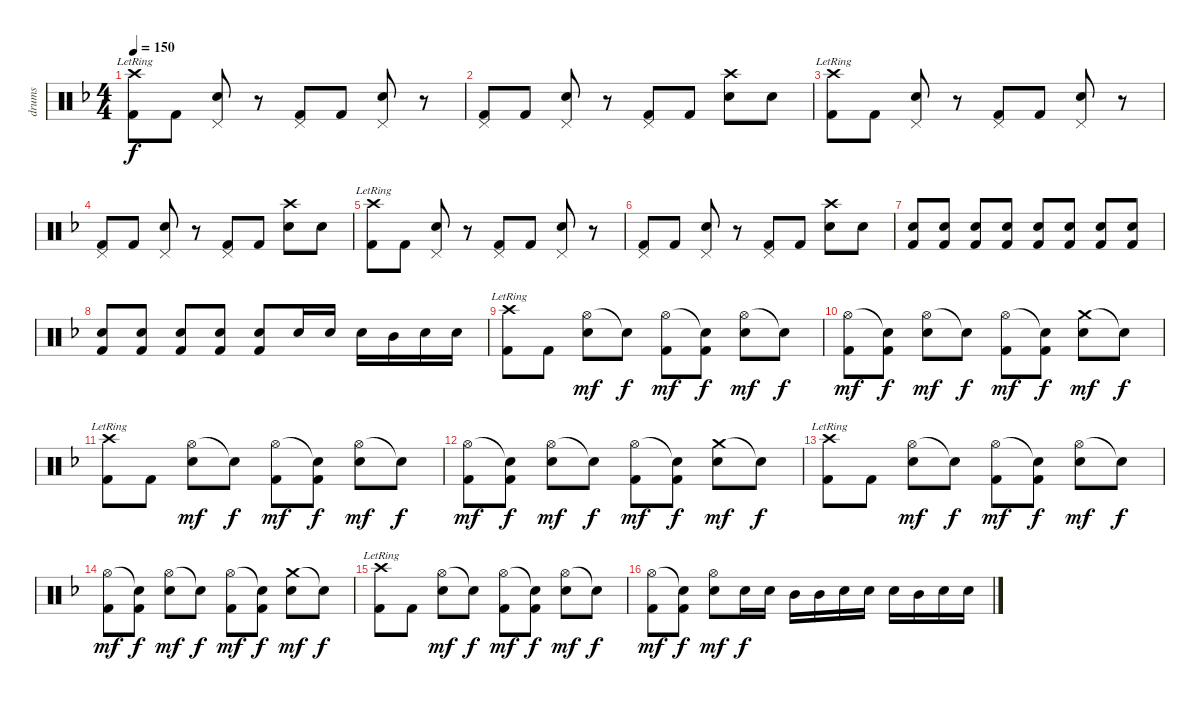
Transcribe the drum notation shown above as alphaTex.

\track ("drums" "drums") {instrument percussion}
\staff {score}
\articulation defaults
\ts (4 4)
\tempo 150
\clef neutral
\ks dminor
("Crash high (hit)"{lr} "Kick (hit) 2").8{dy f} "Kick (hit) 2".8 ("Pedal Hi-Hat (hit)" "Electric Snare (hit)").8 r.8 ("Pedal Hi-Hat (hit)" "Kick (hit) 2").8 "Kick (hit) 2".8 ("Pedal Hi-Hat (hit)" "Electric Snare (hit)").8 r.8 |
("Pedal Hi-Hat (hit)" "Kick (hit) 2").8 "Kick (hit) 2".8 ("Pedal Hi-Hat (hit)" "Electric Snare (hit)").8 r.8 ("Pedal Hi-Hat (hit)" "Kick (hit) 2").8 "Kick (hit) 2".8 ("Crash high (hit)" "Electric Snare (hit)").8 "Electric Snare (hit)".8 |
("Crash high (hit)"{lr} "Kick (hit) 2").8 "Kick (hit) 2".8 ("Pedal Hi-Hat (hit)" "Electric Snare (hit)").8 r.8 ("Pedal Hi-Hat (hit)" "Kick (hit) 2").8 "Kick (hit) 2".8 ("Pedal Hi-Hat (hit)" "Electric Snare (hit)").8 r.8 |
("Pedal Hi-Hat (hit)" "Kick (hit) 2").8 "Kick (hit) 2".8 ("Pedal Hi-Hat (hit)" "Electric Snare (hit)").8 r.8 ("Pedal Hi-Hat (hit)" "Kick (hit) 2").8 "Kick (hit) 2".8 ("Crash high (hit)" "Electric Snare (hit)").8 "Electric Snare (hit)".8 |
("Crash high (hit)"{lr} "Kick (hit) 2").8 "Kick (hit) 2".8 ("Pedal Hi-Hat (hit)" "Electric Snare (hit)").8 r.8 ("Pedal Hi-Hat (hit)" "Kick (hit) 2").8 "Kick (hit) 2".8 ("Pedal Hi-Hat (hit)" "Electric Snare (hit)").8 r.8 |
("Pedal Hi-Hat (hit)" "Kick (hit) 2").8 "Kick (hit) 2".8 ("Pedal Hi-Hat (hit)" "Electric Snare (hit)").8 r.8 ("Pedal Hi-Hat (hit)" "Kick (hit) 2").8 "Kick (hit) 2".8 ("Crash high (hit)" "Electric Snare (hit)").8 "Electric Snare (hit)".8 |
("Electric Snare (hit)" "Kick (hit) 2").8 ("Electric Snare (hit)" "Kick (hit) 2").8 ("Electric Snare (hit)" "Kick (hit) 2").8 ("Electric Snare (hit)" "Kick (hit) 2").8 ("Electric Snare (hit)" "Kick (hit) 2").8 ("Electric Snare (hit)" "Kick (hit) 2").8 ("Electric Snare (hit)" "Kick (hit) 2").8 ("Electric Snare (hit)" "Kick (hit) 2").8 |
("Electric Snare (hit)" "Kick (hit) 2").8 ("Electric Snare (hit)" "Kick (hit) 2").8 ("Electric Snare (hit)" "Kick (hit) 2").8 ("Electric Snare (hit)" "Kick (hit) 2").8 ("Electric Snare (hit)" "Kick (hit) 2").8 "Electric Snare (hit)".16 "Electric Snare (hit)".16 "Electric Snare (hit)".16 "Mid Tom (hit)".16 "Electric Snare (hit)".16 "Electric Snare (hit)".16 |
("Crash high (hit)"{lr} "Kick (hit) 2").8 "Kick (hit) 2".8 ("Hi-Hat (open)" "Electric Snare (hit)").8{dy mf} "Snare (hit)"{t}.8{dy f} ("Hi-Hat (open)" "Kick (hit) 2").8{dy mf} ("Snare (hit)"{t} "Kick (hit) 2").8{dy f} ("Hi-Hat (open)" "Electric Snare (hit)").8{dy mf} "Snare (hit)"{t}.8{dy f} |
("Hi-Hat (open)" "Kick (hit) 2").8{dy mf} ("Snare (hit)"{t} "Kick (hit) 2").8{dy f} ("Hi-Hat (open)" "Electric Snare (hit)").8{dy mf} "Snare (hit)"{t}.8{dy f} ("Hi-Hat (open)" "Kick (hit) 2").8{dy mf} ("Snare (hit)"{t} "Kick (hit) 2").8{dy f} ("Crash medium (hit)" "Electric Snare (hit)").8{dy mf} "Snare (hit)"{t}.8{dy f} |
("Crash high (hit)"{lr} "Kick (hit) 2").8 "Kick (hit) 2".8 ("Hi-Hat (open)" "Electric Snare (hit)").8{dy mf} "Snare (hit)"{t}.8{dy f} ("Hi-Hat (open)" "Kick (hit) 2").8{dy mf} ("Snare (hit)"{t} "Kick (hit) 2").8{dy f} ("Hi-Hat (open)" "Electric Snare (hit)").8{dy mf} "Snare (hit)"{t}.8{dy f} |
("Hi-Hat (open)" "Kick (hit) 2").8{dy mf} ("Snare (hit)"{t} "Kick (hit) 2").8{dy f} ("Hi-Hat (open)" "Electric Snare (hit)").8{dy mf} "Snare (hit)"{t}.8{dy f} ("Hi-Hat (open)" "Kick (hit) 2").8{dy mf} ("Snare (hit)"{t} "Kick (hit) 2").8{dy f} ("Crash medium (hit)" "Electric Snare (hit)").8{dy mf} "Snare (hit)"{t}.8{dy f} |
("Crash high (hit)"{lr} "Kick (hit) 2").8 "Kick (hit) 2".8 ("Hi-Hat (open)" "Electric Snare (hit)").8{dy mf} "Snare (hit)"{t}.8{dy f} ("Hi-Hat (open)" "Kick (hit) 2").8{dy mf} ("Snare (hit)"{t} "Kick (hit) 2").8{dy f} ("Hi-Hat (open)" "Electric Snare (hit)").8{dy mf} "Snare (hit)"{t}.8{dy f} |
("Hi-Hat (open)" "Kick (hit) 2").8{dy mf} ("Snare (hit)"{t} "Kick (hit) 2").8{dy f} ("Hi-Hat (open)" "Electric Snare (hit)").8{dy mf} "Snare (hit)"{t}.8{dy f} ("Hi-Hat (open)" "Kick (hit) 2").8{dy mf} ("Snare (hit)"{t} "Kick (hit) 2").8{dy f} ("Crash medium (hit)" "Electric Snare (hit)").8{dy mf} "Snare (hit)"{t}.8{dy f} |
("Crash high (hit)"{lr} "Kick (hit) 2").8 "Kick (hit) 2".8 ("Hi-Hat (open)" "Electric Snare (hit)").8{dy mf} "Snare (hit)"{t}.8{dy f} ("Hi-Hat (open)" "Kick (hit) 2").8{dy mf} ("Snare (hit)"{t} "Kick (hit) 2").8{dy f} ("Hi-Hat (open)" "Electric Snare (hit)").8{dy mf} "Snare (hit)"{t}.8{dy f} |
("Hi-Hat (open)" "Kick (hit) 2").8{dy mf} ("Snare (hit)"{t} "Kick (hit) 2").8{dy f} ("Hi-Hat (open)" "Electric Snare (hit)").8{dy mf} "Electric Snare (hit)".16{dy f} "Electric Snare (hit)".16 "Mid Tom (hit)".16 "Mid Tom (hit)".16 "Electric Snare (hit)".16 "Electric Snare (hit)".16 "Electric Snare (hit)".16 "Mid Tom (hit)".16 "Electric Snare (hit)".16 "Electric Snare (hit)".16
